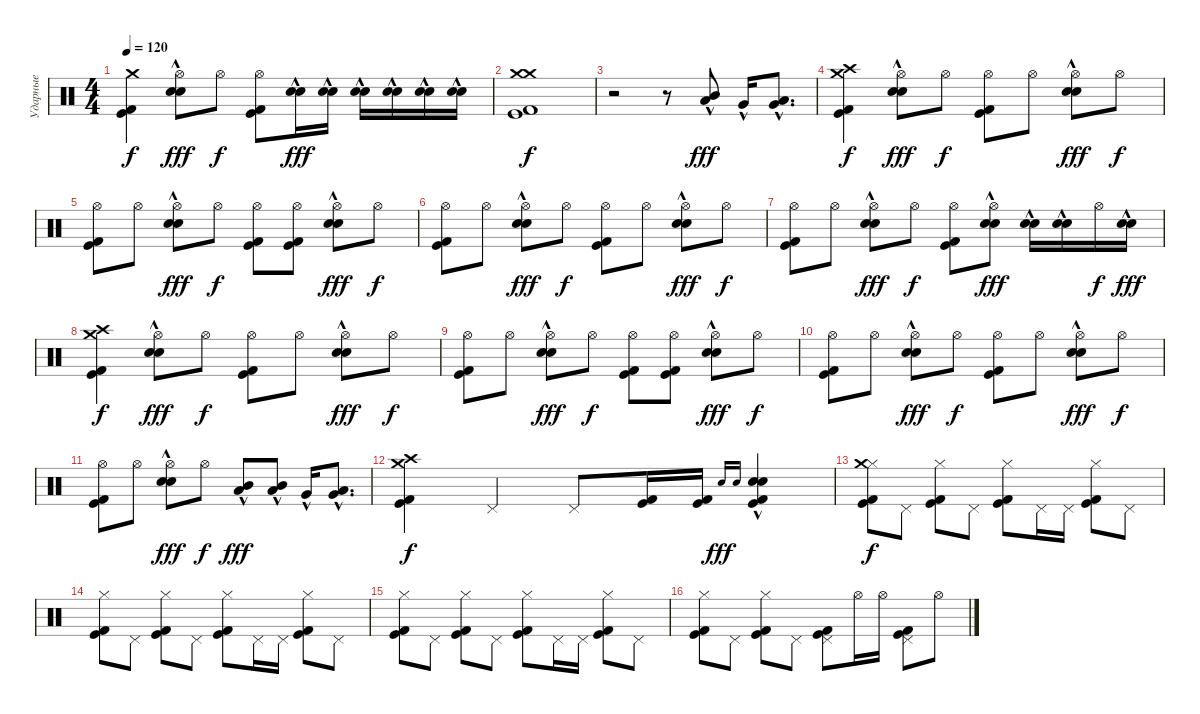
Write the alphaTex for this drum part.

\track ("Ударные" "Ударные") {instrument percussion}
\staff {score}
\articulation defaults
\ts (4 4)
\tempo 120
\clef neutral
\ks c
("Crash medium (hit)" "Kick (hit)" "Kick (hit) 2").4{dy f} ("Hi-Hat (open)" "Snare (hit) 2"{hac} "Electric Snare (hit)"{hac}).8{dy fff} "Hi-Hat (open)".8{dy f} ("Hi-Hat (open)" "Kick (hit)" "Kick (hit) 2").8 ("Snare (hit) 2"{hac} "Electric Snare (hit)"{hac}).16{dy fff} ("Snare (hit) 2"{hac} "Electric Snare (hit)"{hac}).16 ("Snare (hit) 2"{hac} "Electric Snare (hit)"{hac}).16 ("Snare (hit) 2"{hac} "Electric Snare (hit)"{hac}).16 ("Snare (hit) 2"{hac} "Electric Snare (hit)"{hac}).16 ("Snare (hit) 2"{hac} "Electric Snare (hit)"{hac}).16 |
("Crash medium (hit)" "Kick (hit)" "Kick (hit) 2" "Crash medium (hit)").1{dy f} |
r.2 r.8 ("Mid Tom (hit)"{hac} "Low Tom (hit)"{hac}).8{dy fff} "Very Low Tom (hit)"{hac}.16 ("Low Floor Tom (hit)"{hac} "Very Low Tom (hit)"{hac}).8{d} |
("Crash high (hit)" "Kick (hit)" "Kick (hit) 2" "Crash medium (hit)").4{dy f} ("Hi-Hat (open)" "Snare (hit) 2"{hac} "Electric Snare (hit)"{hac}).8{dy fff} "Hi-Hat (open)".8{dy f} ("Hi-Hat (open)" "Kick (hit)" "Kick (hit) 2").8 "Hi-Hat (open)".8 ("Hi-Hat (open)" "Snare (hit) 2"{hac} "Electric Snare (hit)"{hac}).8{dy fff} "Hi-Hat (open)".8{dy f} |
("Hi-Hat (open)" "Kick (hit)" "Kick (hit) 2").8 "Hi-Hat (open)".8 ("Hi-Hat (open)" "Snare (hit) 2"{hac} "Electric Snare (hit)"{hac}).8{dy fff} "Hi-Hat (open)".8{dy f} ("Hi-Hat (open)" "Kick (hit)" "Kick (hit) 2").8 ("Hi-Hat (open)" "Kick (hit)" "Kick (hit) 2").8 ("Hi-Hat (open)" "Snare (hit) 2"{hac} "Electric Snare (hit)"{hac}).8{dy fff} "Hi-Hat (open)".8{dy f} |
("Hi-Hat (open)" "Kick (hit)" "Kick (hit) 2").8 "Hi-Hat (open)".8 ("Hi-Hat (open)" "Snare (hit) 2"{hac} "Electric Snare (hit)"{hac}).8{dy fff} "Hi-Hat (open)".8{dy f} ("Hi-Hat (open)" "Kick (hit)" "Kick (hit) 2").8 "Hi-Hat (open)".8 ("Hi-Hat (open)" "Snare (hit) 2"{hac} "Electric Snare (hit)"{hac}).8{dy fff} "Hi-Hat (open)".8{dy f} |
("Hi-Hat (open)" "Kick (hit)" "Kick (hit) 2").8 "Hi-Hat (open)".8 ("Hi-Hat (open)" "Snare (hit) 2"{hac} "Electric Snare (hit)"{hac}).8{dy fff} "Hi-Hat (open)".8{dy f} ("Hi-Hat (open)" "Kick (hit)" "Kick (hit) 2").8 ("Hi-Hat (open)" "Snare (hit) 2"{hac} "Electric Snare (hit)"{hac}).8{dy fff} ("Snare (hit) 2"{hac} "Electric Snare (hit)"{hac}).16 ("Snare (hit) 2"{hac} "Electric Snare (hit)"{hac}).16 "Hi-Hat (open)".16{dy f} ("Snare (hit) 2"{hac} "Electric Snare (hit)"{hac}).16{dy fff} |
("Crash high (hit)" "Kick (hit)" "Kick (hit) 2" "Crash medium (hit)").4{dy f} ("Hi-Hat (open)" "Snare (hit) 2"{hac} "Electric Snare (hit)"{hac}).8{dy fff} "Hi-Hat (open)".8{dy f} ("Hi-Hat (open)" "Kick (hit)" "Kick (hit) 2").8 "Hi-Hat (open)".8 ("Hi-Hat (open)" "Snare (hit) 2"{hac} "Electric Snare (hit)"{hac}).8{dy fff} "Hi-Hat (open)".8{dy f} |
("Hi-Hat (open)" "Kick (hit)" "Kick (hit) 2").8 "Hi-Hat (open)".8 ("Hi-Hat (open)" "Snare (hit) 2"{hac} "Electric Snare (hit)"{hac}).8{dy fff} "Hi-Hat (open)".8{dy f} ("Hi-Hat (open)" "Kick (hit)" "Kick (hit) 2").8 ("Hi-Hat (open)" "Kick (hit)" "Kick (hit) 2").8 ("Hi-Hat (open)" "Snare (hit) 2"{hac} "Electric Snare (hit)"{hac}).8{dy fff} "Hi-Hat (open)".8{dy f} |
("Hi-Hat (open)" "Kick (hit)" "Kick (hit) 2").8 "Hi-Hat (open)".8 ("Hi-Hat (open)" "Snare (hit) 2"{hac} "Electric Snare (hit)"{hac}).8{dy fff} "Hi-Hat (open)".8{dy f} ("Hi-Hat (open)" "Kick (hit)" "Kick (hit) 2").8 "Hi-Hat (open)".8 ("Hi-Hat (open)" "Snare (hit) 2"{hac} "Electric Snare (hit)"{hac}).8{dy fff} "Hi-Hat (open)".8{dy f} |
("Hi-Hat (open)" "Kick (hit)" "Kick (hit) 2").8 "Hi-Hat (open)".8 ("Hi-Hat (open)" "Snare (hit) 2"{hac} "Electric Snare (hit)"{hac}).8{dy fff} "Hi-Hat (open)".8{dy f} ("Low Tom (hit)"{hac} "Mid Tom (hit)"{hac}).8{dy fff} ("Low Tom (hit)"{hac} "Mid Tom (hit)"{hac}).8 "Very Low Tom (hit)"{hac}.16 ("Low Floor Tom (hit)"{hac} "Very Low Tom (hit)"{hac}).8{d} |
("Crash high (hit)" "Kick (hit)" "Kick (hit) 2" "Crash medium (hit)").4{dy f} "Pedal Hi-Hat (hit)".4 "Pedal Hi-Hat (hit)".8 ("Kick (hit)" "Kick (hit) 2").16 ("Kick (hit)" "Kick (hit) 2").16 "Snare (hit) 2".16{gr onbeat dy fff} "Electric Snare (hit)".16{gr onbeat} ("Kick (hit)" "Kick (hit) 2" "Snare (hit) 2"{hac} "Electric Snare (hit)"{hac}).4 |
("Hi-Hat (closed)" "Kick (hit)" "Kick (hit) 2" "Crash medium (hit)").8{dy f} "Pedal Hi-Hat (hit)".8 ("Hi-Hat (closed)" "Kick (hit)" "Kick (hit) 2").8 "Pedal Hi-Hat (hit)".8 ("Hi-Hat (closed)" "Kick (hit)" "Kick (hit) 2").8 "Pedal Hi-Hat (hit)".16 "Pedal Hi-Hat (hit)".16 ("Hi-Hat (closed)" "Kick (hit)" "Kick (hit) 2").8 "Pedal Hi-Hat (hit)".8 |
("Hi-Hat (closed)" "Kick (hit)" "Kick (hit) 2").8 "Pedal Hi-Hat (hit)".8 ("Hi-Hat (closed)" "Kick (hit)" "Kick (hit) 2").8 "Pedal Hi-Hat (hit)".8 ("Hi-Hat (closed)" "Kick (hit)" "Kick (hit) 2").8 "Pedal Hi-Hat (hit)".16 "Pedal Hi-Hat (hit)".16 ("Hi-Hat (closed)" "Kick (hit)" "Kick (hit) 2").8 "Pedal Hi-Hat (hit)".8 |
("Hi-Hat (closed)" "Kick (hit)" "Kick (hit) 2").8 "Pedal Hi-Hat (hit)".8 ("Hi-Hat (closed)" "Kick (hit)" "Kick (hit) 2").8 "Pedal Hi-Hat (hit)".8 ("Hi-Hat (closed)" "Kick (hit)" "Kick (hit) 2").8 "Pedal Hi-Hat (hit)".16 "Pedal Hi-Hat (hit)".16 ("Hi-Hat (closed)" "Kick (hit)" "Kick (hit) 2").8 "Pedal Hi-Hat (hit)".8 |
("Hi-Hat (closed)" "Kick (hit)" "Kick (hit) 2").8 "Pedal Hi-Hat (hit)".8 ("Hi-Hat (closed)" "Kick (hit)" "Kick (hit) 2").8 "Pedal Hi-Hat (hit)".8 ("Pedal Hi-Hat (hit)" "Kick (hit)" "Kick (hit) 2").8 "Hi-Hat (open)".16 "Hi-Hat (open)".16 ("Pedal Hi-Hat (hit)" "Kick (hit)" "Kick (hit) 2").8 "Hi-Hat (open)".8
